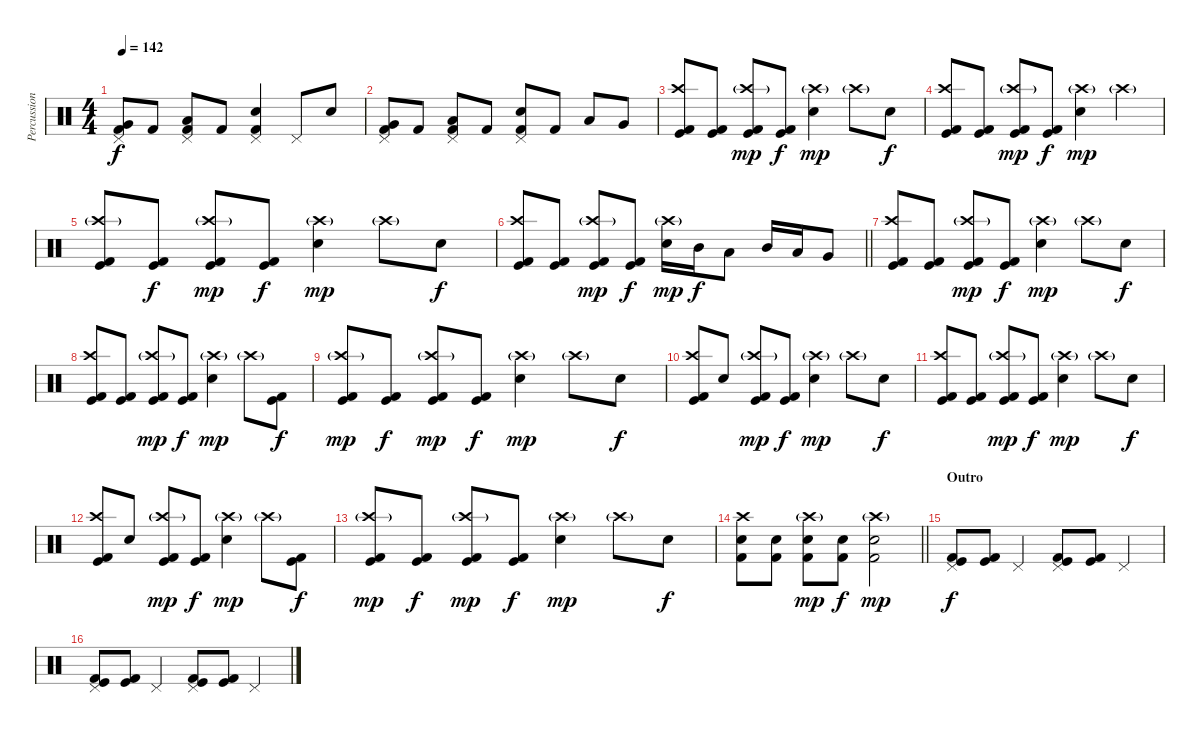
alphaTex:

\track ("Percussion" "Percussion") {instrument percussion}
\staff {score}
\articulation defaults
\ts (4 4)
\tempo 142
\clef neutral
\ks c
("Pedal Hi-Hat (hit)" "Kick (hit) 2" "Very Low Tom (hit)").8{dy f} "Kick (hit) 2".8 ("Pedal Hi-Hat (hit)" "Kick (hit) 2" "Low Floor Tom (hit)").8 "Kick (hit) 2".8 ("Pedal Hi-Hat (hit)" "Electric Snare (hit)" "Kick (hit) 2").4 "Pedal Hi-Hat (hit)".8 "Electric Snare (hit)".8 |
("Pedal Hi-Hat (hit)" "Kick (hit) 2" "Very Low Tom (hit)").8 "Kick (hit) 2".8 ("Pedal Hi-Hat (hit)" "Kick (hit) 2" "Low Floor Tom (hit)").8 "Kick (hit) 2".8 ("Pedal Hi-Hat (hit)" "Electric Snare (hit)" "Kick (hit) 2").8 "Kick (hit) 2".8 "Low Tom (hit)".8 "Very Low Tom (hit)".8 |
("Crash high (hit)" "Kick (hit)" "Kick (hit) 2").8 ("Kick (hit)" "Kick (hit) 2").8 ("Crash high (hit)"{g} "Kick (hit)" "Kick (hit) 2").8{dy mp} ("Kick (hit)" "Kick (hit) 2").8{dy f} ("Crash high (hit)"{g} "Electric Snare (hit)").4{dy mp} "Crash high (hit)"{g}.8 "Electric Snare (hit)".8{dy f} |
("Crash high (hit)" "Kick (hit)" "Kick (hit) 2").8 ("Kick (hit)" "Kick (hit) 2").8 ("Crash high (hit)"{g} "Kick (hit)" "Kick (hit) 2").8{dy mp} ("Kick (hit)" "Kick (hit) 2").8{dy f} ("Crash high (hit)"{g} "Electric Snare (hit)").4{dy mp} "Crash high (hit)"{g}.4 |
("Crash high (hit)"{g} "Kick (hit)" "Kick (hit) 2").8 ("Kick (hit)" "Kick (hit) 2").8{dy f} ("Crash high (hit)"{g} "Kick (hit)" "Kick (hit) 2").8{dy mp} ("Kick (hit)" "Kick (hit) 2").8{dy f} ("Crash high (hit)"{g} "Electric Snare (hit)").4{dy mp} "Crash high (hit)"{g}.8 "Electric Snare (hit)".8{dy f} |
\barLineRight lightlight
("Crash high (hit)" "Kick (hit)" "Kick (hit) 2").8 ("Kick (hit)" "Kick (hit) 2").8 ("Crash high (hit)"{g} "Kick (hit)" "Kick (hit) 2").8{dy mp} ("Kick (hit)" "Kick (hit) 2").8{dy f} ("Crash high (hit)"{g} "Electric Snare (hit)").16{dy mp} "Mid Tom (hit)".16{dy f} "Low Tom (hit)".8 "Mid Tom (hit)".16 "Low Tom (hit)".16 "Very Low Tom (hit)".8 |
\section ("" "")
("Crash high (hit)" "Kick (hit)" "Kick (hit) 2").8 ("Kick (hit)" "Kick (hit) 2").8 ("Crash high (hit)"{g} "Kick (hit)" "Kick (hit) 2").8{dy mp} ("Kick (hit)" "Kick (hit) 2").8{dy f} ("Crash high (hit)"{g} "Electric Snare (hit)").4{dy mp} "Crash high (hit)"{g}.8 "Electric Snare (hit)".8{dy f} |
("Crash high (hit)" "Kick (hit)" "Kick (hit) 2").8 ("Kick (hit)" "Kick (hit) 2").8 ("Crash high (hit)"{g} "Kick (hit)" "Kick (hit) 2").8{dy mp} ("Kick (hit)" "Kick (hit) 2").8{dy f} ("Crash high (hit)"{g} "Electric Snare (hit)").4{dy mp} "Crash high (hit)"{g}.8 ("Kick (hit)" "Kick (hit) 2").8{dy f} |
("Crash high (hit)"{g} "Kick (hit)" "Kick (hit) 2").8{dy mp} ("Kick (hit)" "Kick (hit) 2").8{dy f} ("Crash high (hit)"{g} "Kick (hit)" "Kick (hit) 2").8{dy mp} ("Kick (hit)" "Kick (hit) 2").8{dy f} ("Crash high (hit)"{g} "Electric Snare (hit)").4{dy mp} "Crash high (hit)"{g}.8 "Electric Snare (hit)".8{dy f} |
("Crash high (hit)" "Kick (hit)" "Kick (hit) 2").8 "Electric Snare (hit)".8 ("Crash high (hit)"{g} "Kick (hit)" "Kick (hit) 2").8{dy mp} ("Kick (hit)" "Kick (hit) 2").8{dy f} ("Crash high (hit)"{g} "Electric Snare (hit)").4{dy mp} "Crash high (hit)"{g}.8 "Electric Snare (hit)".8{dy f} |
("Crash high (hit)" "Kick (hit)" "Kick (hit) 2").8 ("Kick (hit)" "Kick (hit) 2").8 ("Crash high (hit)"{g} "Kick (hit)" "Kick (hit) 2").8{dy mp} ("Kick (hit)" "Kick (hit) 2").8{dy f} ("Crash high (hit)"{g} "Electric Snare (hit)").4{dy mp} "Crash high (hit)"{g}.8 "Electric Snare (hit)".8{dy f} |
("Crash high (hit)" "Kick (hit)" "Kick (hit) 2").8 "Electric Snare (hit)".8 ("Crash high (hit)"{g} "Kick (hit)" "Kick (hit) 2").8{dy mp} ("Kick (hit)" "Kick (hit) 2").8{dy f} ("Crash high (hit)"{g} "Electric Snare (hit)").4{dy mp} "Crash high (hit)"{g}.8 ("Kick (hit)" "Kick (hit) 2").8{dy f} |
("Crash high (hit)"{g} "Kick (hit)" "Kick (hit) 2").8{dy mp} ("Kick (hit)" "Kick (hit) 2").8{dy f} ("Crash high (hit)"{g} "Kick (hit)" "Kick (hit) 2").8{dy mp} ("Kick (hit)" "Kick (hit) 2").8{dy f} ("Crash high (hit)"{g} "Electric Snare (hit)").4{dy mp} "Crash high (hit)"{g}.8 "Electric Snare (hit)".8{dy f} |
\barLineRight lightlight
("Crash high (hit)" "Electric Snare (hit)" "Kick (hit) 2").8 ("Electric Snare (hit)" "Kick (hit) 2").8 ("Crash high (hit)"{g} "Electric Snare (hit)" "Kick (hit) 2").8{dy mp} ("Electric Snare (hit)" "Kick (hit) 2").8{dy f} ("Crash high (hit)"{g} "Electric Snare (hit)" "Kick (hit) 2").2{dy mp} |
\section ("" "Outro")
("Pedal Hi-Hat (hit)" "Kick (hit)" "Kick (hit) 2").8{dy f} ("Kick (hit)" "Kick (hit) 2").8 "Pedal Hi-Hat (hit)".4 ("Pedal Hi-Hat (hit)" "Kick (hit)" "Kick (hit) 2").8 ("Kick (hit)" "Kick (hit) 2").8 "Pedal Hi-Hat (hit)".4 |
("Pedal Hi-Hat (hit)" "Kick (hit)" "Kick (hit) 2").8 ("Kick (hit)" "Kick (hit) 2").8 "Pedal Hi-Hat (hit)".4 ("Pedal Hi-Hat (hit)" "Kick (hit)" "Kick (hit) 2").8 ("Kick (hit)" "Kick (hit) 2").8 "Pedal Hi-Hat (hit)".4
